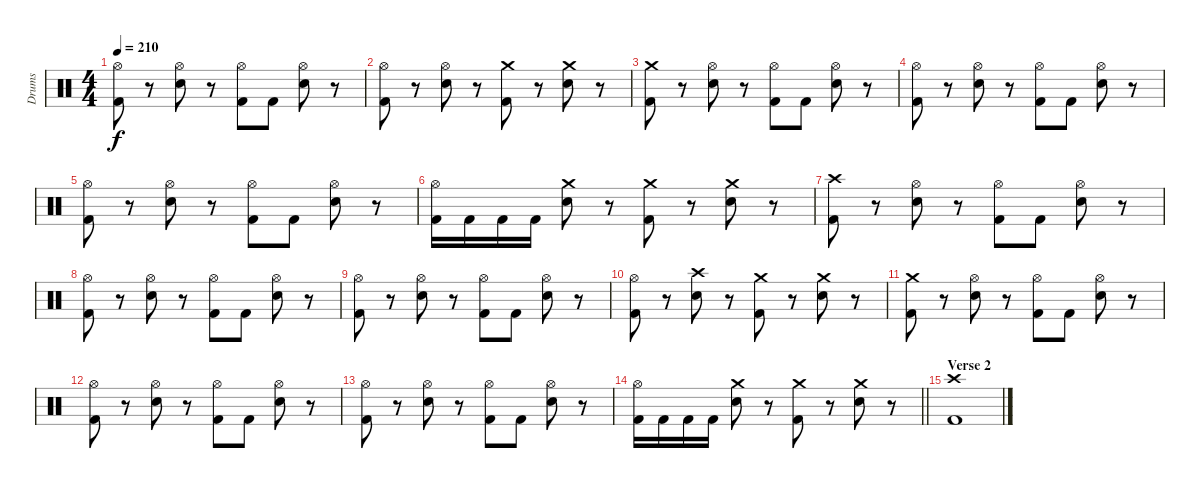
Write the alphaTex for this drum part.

\track ("Drums" "Drums") {instrument percussion}
\staff {score}
\articulation defaults
\ts (4 4)
\tempo 210
\clef neutral
\ks c
("Hi-Hat (open)" "Kick (hit) 2").8{dy f} r.8 ("Hi-Hat (open)" "Electric Snare (hit)").8 r.8 ("Hi-Hat (open)" "Kick (hit) 2").8 "Kick (hit) 2".8 ("Hi-Hat (open)" "Electric Snare (hit)").8 r.8 |
("Hi-Hat (open)" "Kick (hit) 2").8 r.8 ("Hi-Hat (open)" "Electric Snare (hit)").8 r.8 ("Crash medium (hit)" "Kick (hit) 2").8 r.8 ("Crash medium (hit)" "Electric Snare (hit)").8 r.8 |
("Crash medium (hit)" "Kick (hit) 2").8 r.8 ("Hi-Hat (open)" "Electric Snare (hit)").8 r.8 ("Hi-Hat (open)" "Kick (hit) 2").8 "Kick (hit) 2".8 ("Hi-Hat (open)" "Electric Snare (hit)").8 r.8 |
("Hi-Hat (open)" "Kick (hit) 2").8 r.8 ("Hi-Hat (open)" "Electric Snare (hit)").8 r.8 ("Hi-Hat (open)" "Kick (hit) 2").8 "Kick (hit) 2".8 ("Hi-Hat (open)" "Electric Snare (hit)").8 r.8 |
("Hi-Hat (open)" "Kick (hit) 2").8 r.8 ("Hi-Hat (open)" "Electric Snare (hit)").8 r.8 ("Hi-Hat (open)" "Kick (hit) 2").8 "Kick (hit) 2".8 ("Hi-Hat (open)" "Electric Snare (hit)").8 r.8 |
("Hi-Hat (open)" "Kick (hit) 2").16 "Kick (hit) 2".16 "Kick (hit) 2".16 "Kick (hit) 2".16 ("Crash medium (hit)" "Electric Snare (hit)").8 r.8 ("Crash medium (hit)" "Kick (hit) 2").8 r.8 ("Crash medium (hit)" "Electric Snare (hit)").8 r.8 |
("Crash high (hit)" "Kick (hit) 2").8 r.8 ("Hi-Hat (open)" "Electric Snare (hit)").8 r.8 ("Hi-Hat (open)" "Kick (hit) 2").8 "Kick (hit) 2".8 ("Hi-Hat (open)" "Electric Snare (hit)").8 r.8 |
("Hi-Hat (open)" "Kick (hit) 2").8 r.8 ("Hi-Hat (open)" "Electric Snare (hit)").8 r.8 ("Hi-Hat (open)" "Kick (hit) 2").8 "Kick (hit) 2".8 ("Hi-Hat (open)" "Electric Snare (hit)").8 r.8 |
("Hi-Hat (open)" "Kick (hit) 2").8 r.8 ("Hi-Hat (open)" "Electric Snare (hit)").8 r.8 ("Hi-Hat (open)" "Kick (hit) 2").8 "Kick (hit) 2".8 ("Hi-Hat (open)" "Electric Snare (hit)").8 r.8 |
("Hi-Hat (open)" "Kick (hit) 2").8 r.8 ("Crash high (hit)" "Electric Snare (hit)").8 r.8 ("Crash medium (hit)" "Kick (hit) 2").8 r.8 ("Crash medium (hit)" "Electric Snare (hit)").8 r.8 |
("Crash medium (hit)" "Kick (hit) 2").8 r.8 ("Hi-Hat (open)" "Electric Snare (hit)").8 r.8 ("Hi-Hat (open)" "Kick (hit) 2").8 "Kick (hit) 2".8 ("Hi-Hat (open)" "Electric Snare (hit)").8 r.8 |
("Hi-Hat (open)" "Kick (hit) 2").8 r.8 ("Hi-Hat (open)" "Electric Snare (hit)").8 r.8 ("Hi-Hat (open)" "Kick (hit) 2").8 "Kick (hit) 2".8 ("Hi-Hat (open)" "Electric Snare (hit)").8 r.8 |
("Hi-Hat (open)" "Kick (hit) 2").8 r.8 ("Hi-Hat (open)" "Electric Snare (hit)").8 r.8 ("Hi-Hat (open)" "Kick (hit) 2").8 "Kick (hit) 2".8 ("Hi-Hat (open)" "Electric Snare (hit)").8 r.8 |
\barLineRight lightlight
("Hi-Hat (open)" "Kick (hit) 2").16 "Kick (hit) 2".16 "Kick (hit) 2".16 "Kick (hit) 2".16 ("Crash medium (hit)" "Electric Snare (hit)").8 r.8 ("Crash medium (hit)" "Kick (hit) 2").8 r.8 ("Crash medium (hit)" "Electric Snare (hit)").8 r.8 |
\section ("" "Verse 2")
("Crash high (hit)" "Kick (hit) 2").1
